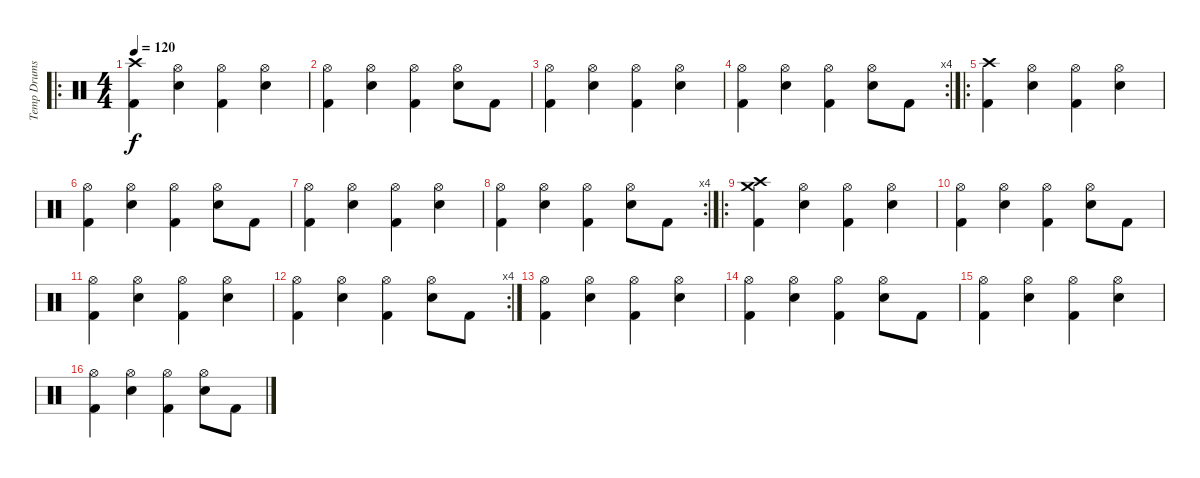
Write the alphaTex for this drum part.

\track ("Temp Drums (i dont know them!)" "Temp Drums") {instrument percussion}
\staff {score}
\articulation defaults
\ro
\ts (4 4)
\tempo 120
\clef neutral
\ks c
("Crash high (hit)" "Kick (hit) 2").4{dy f} ("Hi-Hat (open)" "Snare (hit) 2").4 ("Hi-Hat (open)" "Kick (hit) 2").4 ("Hi-Hat (open)" "Snare (hit) 2").4 |
("Hi-Hat (open)" "Kick (hit) 2").4 ("Hi-Hat (open)" "Snare (hit) 2").4 ("Hi-Hat (open)" "Kick (hit) 2").4 ("Hi-Hat (open)" "Snare (hit) 2").8 "Kick (hit) 2".8 |
("Hi-Hat (open)" "Kick (hit) 2").4 ("Hi-Hat (open)" "Snare (hit) 2").4 ("Hi-Hat (open)" "Kick (hit) 2").4 ("Hi-Hat (open)" "Snare (hit) 2").4 |
\rc 4
("Hi-Hat (open)" "Kick (hit) 2").4 ("Hi-Hat (open)" "Snare (hit) 2").4 ("Hi-Hat (open)" "Kick (hit) 2").4 ("Hi-Hat (open)" "Snare (hit) 2").8 "Kick (hit) 2".8 |
\ro
("Crash high (hit)" "Kick (hit) 2").4 ("Hi-Hat (open)" "Snare (hit) 2").4 ("Hi-Hat (open)" "Kick (hit) 2").4 ("Hi-Hat (open)" "Snare (hit) 2").4 |
("Hi-Hat (open)" "Kick (hit) 2").4 ("Hi-Hat (open)" "Snare (hit) 2").4 ("Hi-Hat (open)" "Kick (hit) 2").4 ("Hi-Hat (open)" "Snare (hit) 2").8 "Kick (hit) 2".8 |
("Hi-Hat (open)" "Kick (hit) 2").4 ("Hi-Hat (open)" "Snare (hit) 2").4 ("Hi-Hat (open)" "Kick (hit) 2").4 ("Hi-Hat (open)" "Snare (hit) 2").4 |
\rc 4
("Hi-Hat (open)" "Kick (hit) 2").4 ("Hi-Hat (open)" "Snare (hit) 2").4 ("Hi-Hat (open)" "Kick (hit) 2").4 ("Hi-Hat (open)" "Snare (hit) 2").8 "Kick (hit) 2".8 |
\ro
("Crash high (hit)" "Crash medium (hit)" "Kick (hit) 2").4 ("Hi-Hat (open)" "Snare (hit) 2").4 ("Hi-Hat (open)" "Kick (hit) 2").4 ("Hi-Hat (open)" "Snare (hit) 2").4 |
("Hi-Hat (open)" "Kick (hit) 2").4 ("Hi-Hat (open)" "Snare (hit) 2").4 ("Hi-Hat (open)" "Kick (hit) 2").4 ("Hi-Hat (open)" "Snare (hit) 2").8 "Kick (hit) 2".8 |
("Hi-Hat (open)" "Kick (hit) 2").4 ("Hi-Hat (open)" "Snare (hit) 2").4 ("Hi-Hat (open)" "Kick (hit) 2").4 ("Hi-Hat (open)" "Snare (hit) 2").4 |
\rc 4
("Hi-Hat (open)" "Kick (hit) 2").4 ("Hi-Hat (open)" "Snare (hit) 2").4 ("Hi-Hat (open)" "Kick (hit) 2").4 ("Hi-Hat (open)" "Snare (hit) 2").8 "Kick (hit) 2".8 |
("Hi-Hat (open)" "Kick (hit) 2").4 ("Hi-Hat (open)" "Snare (hit) 2").4 ("Hi-Hat (open)" "Kick (hit) 2").4 ("Hi-Hat (open)" "Snare (hit) 2").4 |
("Hi-Hat (open)" "Kick (hit) 2").4 ("Hi-Hat (open)" "Snare (hit) 2").4 ("Hi-Hat (open)" "Kick (hit) 2").4 ("Hi-Hat (open)" "Snare (hit) 2").8 "Kick (hit) 2".8 |
("Hi-Hat (open)" "Kick (hit) 2").4 ("Hi-Hat (open)" "Snare (hit) 2").4 ("Hi-Hat (open)" "Kick (hit) 2").4 ("Hi-Hat (open)" "Snare (hit) 2").4 |
("Hi-Hat (open)" "Kick (hit) 2").4 ("Hi-Hat (open)" "Snare (hit) 2").4 ("Hi-Hat (open)" "Kick (hit) 2").4 ("Hi-Hat (open)" "Snare (hit) 2").8 "Kick (hit) 2".8
